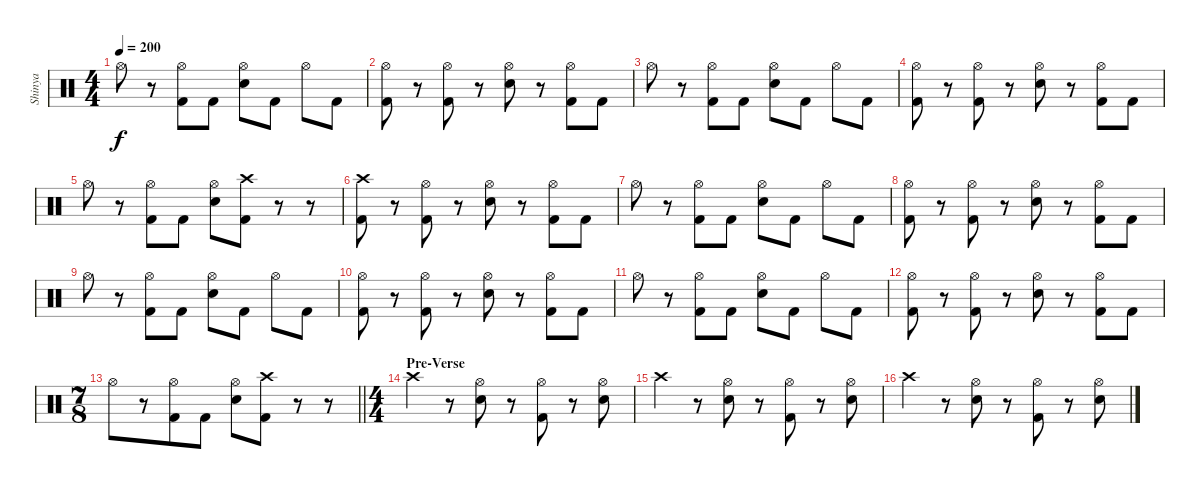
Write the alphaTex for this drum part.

\track ("Shinya" "Shinya") {instrument percussion}
\staff {score}
\articulation defaults
\ts (4 4)
\tempo 200
\clef neutral
\ks c "Hi-Hat (open)".8{dy f}
r.8 ("Kick (hit) 2" "Hi-Hat (open)").8 "Kick (hit) 2".8 ("Electric Snare (hit)" "Hi-Hat (open)").8 "Kick (hit) 2".8 "Hi-Hat (open)".8 "Kick (hit) 2".8 |
("Kick (hit) 2" "Hi-Hat (open)").8 r.8 ("Kick (hit) 2" "Hi-Hat (open)").8 r.8 ("Electric Snare (hit)" "Hi-Hat (open)").8 r.8 ("Kick (hit) 2" "Hi-Hat (open)").8 "Kick (hit) 2".8 |
"Hi-Hat (open)".8 r.8 ("Kick (hit) 2" "Hi-Hat (open)").8 "Kick (hit) 2".8 ("Electric Snare (hit)" "Hi-Hat (open)").8 "Kick (hit) 2".8 "Hi-Hat (open)".8 "Kick (hit) 2".8 |
("Kick (hit) 2" "Hi-Hat (open)").8 r.8 ("Kick (hit) 2" "Hi-Hat (open)").8 r.8 ("Electric Snare (hit)" "Hi-Hat (open)").8 r.8 ("Kick (hit) 2" "Hi-Hat (open)").8 "Kick (hit) 2".8 |
"Hi-Hat (open)".8 r.8 ("Kick (hit) 2" "Hi-Hat (open)").8 "Kick (hit) 2".8 ("Electric Snare (hit)" "Hi-Hat (open)").8 ("Kick (hit) 2" "Crash high (hit)").8 r.8 r.8 |
("Kick (hit) 2" "Crash high (hit)").8 r.8 ("Kick (hit) 2" "Hi-Hat (open)").8 r.8 ("Electric Snare (hit)" "Hi-Hat (open)").8 r.8 ("Kick (hit) 2" "Hi-Hat (open)").8 "Kick (hit) 2".8 |
"Hi-Hat (open)".8 r.8 ("Kick (hit) 2" "Hi-Hat (open)").8 "Kick (hit) 2".8 ("Electric Snare (hit)" "Hi-Hat (open)").8 "Kick (hit) 2".8 "Hi-Hat (open)".8 "Kick (hit) 2".8 |
("Kick (hit) 2" "Hi-Hat (open)").8 r.8 ("Kick (hit) 2" "Hi-Hat (open)").8 r.8 ("Electric Snare (hit)" "Hi-Hat (open)").8 r.8 ("Kick (hit) 2" "Hi-Hat (open)").8 "Kick (hit) 2".8 |
"Hi-Hat (open)".8 r.8 ("Kick (hit) 2" "Hi-Hat (open)").8 "Kick (hit) 2".8 ("Electric Snare (hit)" "Hi-Hat (open)").8 "Kick (hit) 2".8 "Hi-Hat (open)".8 "Kick (hit) 2".8 |
("Kick (hit) 2" "Hi-Hat (open)").8 r.8 ("Kick (hit) 2" "Hi-Hat (open)").8 r.8 ("Electric Snare (hit)" "Hi-Hat (open)").8 r.8 ("Kick (hit) 2" "Hi-Hat (open)").8 "Kick (hit) 2".8 |
"Hi-Hat (open)".8 r.8 ("Kick (hit) 2" "Hi-Hat (open)").8 "Kick (hit) 2".8 ("Electric Snare (hit)" "Hi-Hat (open)").8 "Kick (hit) 2".8 "Hi-Hat (open)".8 "Kick (hit) 2".8 |
("Kick (hit) 2" "Hi-Hat (open)").8 r.8 ("Kick (hit) 2" "Hi-Hat (open)").8 r.8 ("Electric Snare (hit)" "Hi-Hat (open)").8 r.8 ("Kick (hit) 2" "Hi-Hat (open)").8 "Kick (hit) 2".8 |
\ts (7 8)
\barLineRight lightlight "Hi-Hat (open)".8
r.8 ("Kick (hit) 2" "Hi-Hat (open)").8 "Kick (hit) 2".8 ("Electric Snare (hit)" "Hi-Hat (open)").8 ("Kick (hit) 2" "Crash high (hit)").8 r.8 r.8 |
\ts (4 4)
\section ("" "Pre-Verse")
"Crash high (hit)".4 r.8 ("Hi-Hat (open)" "Electric Snare (hit)").8 r.8 ("Hi-Hat (open)" "Kick (hit) 2").8 r.8 ("Hi-Hat (open)" "Electric Snare (hit)").8 |
"Crash high (hit)".4 r.8 ("Hi-Hat (open)" "Electric Snare (hit)").8 r.8 ("Hi-Hat (open)" "Kick (hit) 2").8 r.8 ("Hi-Hat (open)" "Electric Snare (hit)").8 |
"Crash high (hit)".4 r.8 ("Hi-Hat (open)" "Electric Snare (hit)").8 r.8 ("Hi-Hat (open)" "Kick (hit) 2").8 r.8 ("Hi-Hat (open)" "Electric Snare (hit)").8
